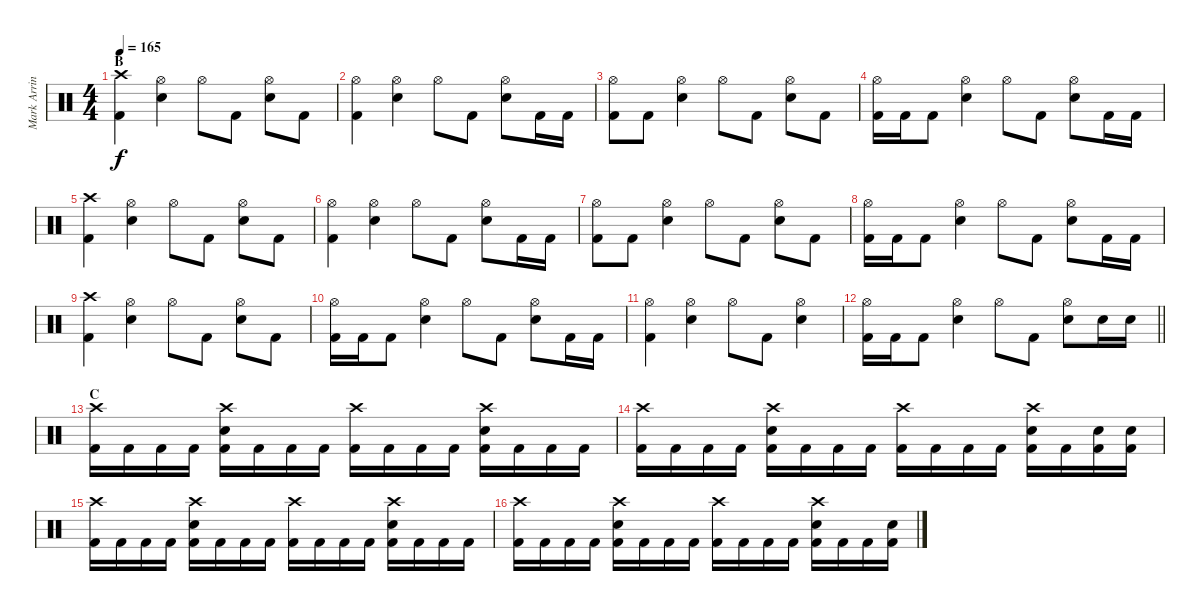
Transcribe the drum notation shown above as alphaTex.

\track ("Mark Arrington Drums" "Mark Arrin") {instrument percussion}
\staff {score}
\articulation defaults
\ts (4 4)
\section ("" "B")
\tempo 165
\clef neutral
\ks c
("Crash high (hit)" "Kick (hit) 2").4{dy f} ("Hi-Hat (open)" "Electric Snare (hit)").4 "Hi-Hat (open)".8 "Kick (hit) 2".8 ("Hi-Hat (open)" "Electric Snare (hit)").8 "Kick (hit) 2".8 |
("Hi-Hat (open)" "Kick (hit) 2").4 ("Hi-Hat (open)" "Electric Snare (hit)").4 "Hi-Hat (open)".8 "Kick (hit) 2".8 ("Hi-Hat (open)" "Electric Snare (hit)").8 "Kick (hit) 2".16 "Kick (hit) 2".16 |
("Hi-Hat (open)" "Kick (hit) 2").8 "Kick (hit) 2".8 ("Hi-Hat (open)" "Electric Snare (hit)").4 "Hi-Hat (open)".8 "Kick (hit) 2".8 ("Hi-Hat (open)" "Electric Snare (hit)").8 "Kick (hit) 2".8 |
("Hi-Hat (open)" "Kick (hit) 2").16 "Kick (hit) 2".16 "Kick (hit) 2".8 ("Hi-Hat (open)" "Electric Snare (hit)").4 "Hi-Hat (open)".8 "Kick (hit) 2".8 ("Hi-Hat (open)" "Electric Snare (hit)").8 "Kick (hit) 2".16 "Kick (hit) 2".16 |
("Crash high (hit)" "Kick (hit) 2").4 ("Hi-Hat (open)" "Electric Snare (hit)").4 "Hi-Hat (open)".8 "Kick (hit) 2".8 ("Hi-Hat (open)" "Electric Snare (hit)").8 "Kick (hit) 2".8 |
("Hi-Hat (open)" "Kick (hit) 2").4 ("Hi-Hat (open)" "Electric Snare (hit)").4 "Hi-Hat (open)".8 "Kick (hit) 2".8 ("Hi-Hat (open)" "Electric Snare (hit)").8 "Kick (hit) 2".16 "Kick (hit) 2".16 |
("Hi-Hat (open)" "Kick (hit) 2").8 "Kick (hit) 2".8 ("Hi-Hat (open)" "Electric Snare (hit)").4 "Hi-Hat (open)".8 "Kick (hit) 2".8 ("Hi-Hat (open)" "Electric Snare (hit)").8 "Kick (hit) 2".8 |
("Hi-Hat (open)" "Kick (hit) 2").16 "Kick (hit) 2".16 "Kick (hit) 2".8 ("Hi-Hat (open)" "Electric Snare (hit)").4 "Hi-Hat (open)".8 "Kick (hit) 2".8 ("Hi-Hat (open)" "Electric Snare (hit)").8 "Kick (hit) 2".16 "Kick (hit) 2".16 |
("Crash high (hit)" "Kick (hit) 2").4 ("Hi-Hat (open)" "Electric Snare (hit)").4 "Hi-Hat (open)".8 "Kick (hit) 2".8 ("Hi-Hat (open)" "Electric Snare (hit)").8 "Kick (hit) 2".8 |
("Hi-Hat (open)" "Kick (hit) 2").16 "Kick (hit) 2".16 "Kick (hit) 2".8 ("Hi-Hat (open)" "Electric Snare (hit)").4 "Hi-Hat (open)".8 "Kick (hit) 2".8 ("Hi-Hat (open)" "Electric Snare (hit)").8 "Kick (hit) 2".16 "Kick (hit) 2".16 |
("Hi-Hat (open)" "Kick (hit) 2").4 ("Hi-Hat (open)" "Electric Snare (hit)").4 "Hi-Hat (open)".8 "Kick (hit) 2".8 ("Hi-Hat (open)" "Electric Snare (hit)").4 |
\barLineRight lightlight
("Hi-Hat (open)" "Kick (hit) 2").16 "Kick (hit) 2".16 "Kick (hit) 2".8 ("Hi-Hat (open)" "Electric Snare (hit)").4 "Hi-Hat (open)".8 "Kick (hit) 2".8 ("Hi-Hat (open)" "Electric Snare (hit)").8 "Electric Snare (hit)".16 "Electric Snare (hit)".16 |
\section ("" "C")
("Crash high (hit)" "Kick (hit) 2").16 "Kick (hit) 2".16 "Kick (hit) 2".16 "Kick (hit) 2".16 ("Crash high (hit)" "Electric Snare (hit)" "Kick (hit) 2").16 "Kick (hit) 2".16 "Kick (hit) 2".16 "Kick (hit) 2".16 ("Crash high (hit)" "Kick (hit) 2").16 "Kick (hit) 2".16 "Kick (hit) 2".16 "Kick (hit) 2".16 ("Crash high (hit)" "Electric Snare (hit)" "Kick (hit) 2").16 "Kick (hit) 2".16 "Kick (hit) 2".16 "Kick (hit) 2".16 |
("Crash high (hit)" "Kick (hit) 2").16 "Kick (hit) 2".16 "Kick (hit) 2".16 "Kick (hit) 2".16 ("Crash high (hit)" "Electric Snare (hit)" "Kick (hit) 2").16 "Kick (hit) 2".16 "Kick (hit) 2".16 "Kick (hit) 2".16 ("Crash high (hit)" "Kick (hit) 2").16 "Kick (hit) 2".16 "Kick (hit) 2".16 "Kick (hit) 2".16 ("Crash high (hit)" "Electric Snare (hit)" "Kick (hit) 2").16 "Kick (hit) 2".16 ("Electric Snare (hit)" "Kick (hit) 2").16 ("Electric Snare (hit)" "Kick (hit) 2").16 |
("Crash high (hit)" "Kick (hit) 2").16 "Kick (hit) 2".16 "Kick (hit) 2".16 "Kick (hit) 2".16 ("Crash high (hit)" "Electric Snare (hit)" "Kick (hit) 2").16 "Kick (hit) 2".16 "Kick (hit) 2".16 "Kick (hit) 2".16 ("Crash high (hit)" "Kick (hit) 2").16 "Kick (hit) 2".16 "Kick (hit) 2".16 "Kick (hit) 2".16 ("Crash high (hit)" "Electric Snare (hit)" "Kick (hit) 2").16 "Kick (hit) 2".16 "Kick (hit) 2".16 "Kick (hit) 2".16 |
("Crash high (hit)" "Kick (hit) 2").16 "Kick (hit) 2".16 "Kick (hit) 2".16 "Kick (hit) 2".16 ("Crash high (hit)" "Electric Snare (hit)" "Kick (hit) 2").16 "Kick (hit) 2".16 "Kick (hit) 2".16 "Kick (hit) 2".16 ("Crash high (hit)" "Kick (hit) 2").16 "Kick (hit) 2".16 "Kick (hit) 2".16 "Kick (hit) 2".16 ("Crash high (hit)" "Electric Snare (hit)" "Kick (hit) 2").16 "Kick (hit) 2".16 "Kick (hit) 2".16 ("Electric Snare (hit)" "Kick (hit) 2").16
